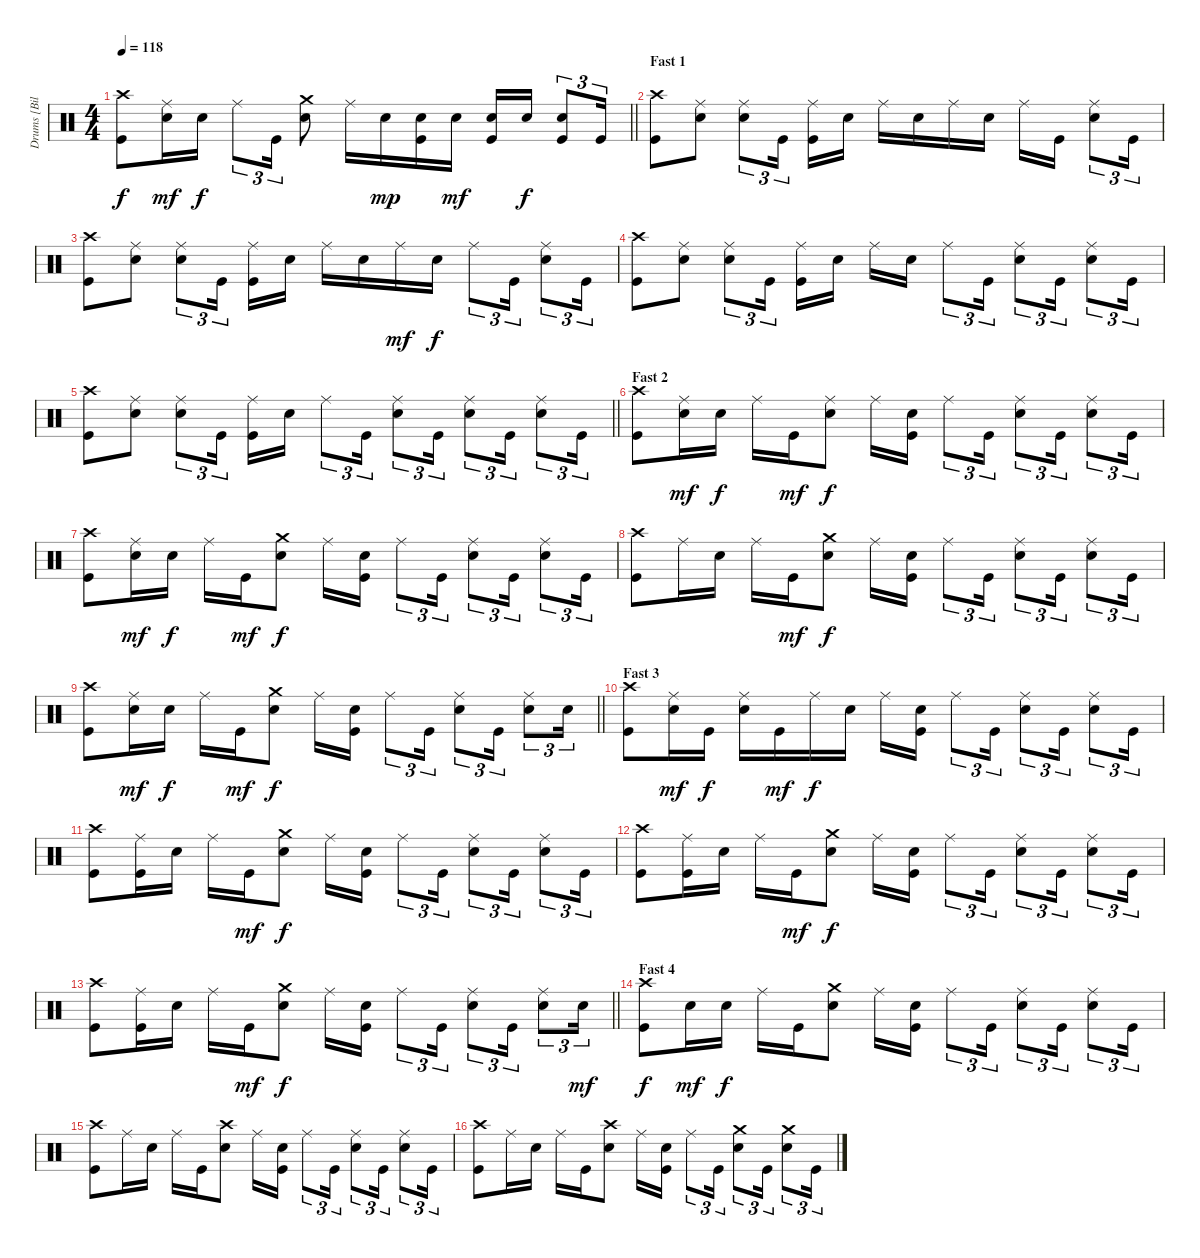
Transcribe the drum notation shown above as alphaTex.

\track ("Drums [Bill Ward]" "Drums [Bil") {instrument percussion}
\staff {score}
\articulation defaults
\ts (4 4)
\tempo 118
\clef neutral
\barLineRight lightlight
\ks c
("Crash high (hit)" "Kick (hit)").8{dy f} ("Ride (middle)" "Electric Snare (hit)").16{dy mf} "Electric Snare (hit)".16{dy f} "Ride (middle)".8{tu (3 2)} "Kick (hit)".16{tu (3 2)} ("Crash medium (hit)" "Electric Snare (hit)").8 "Ride (middle)".16 "Electric Snare (hit)".16{dy mp} ("Electric Snare (hit)" "Kick (hit)").16 "Electric Snare (hit)".16{dy mf} ("Electric Snare (hit)" "Kick (hit)").16 "Electric Snare (hit)".16{dy f} ("Electric Snare (hit)" "Kick (hit)").8{tu (3 2)} "Kick (hit)".16{tu (3 2)} |
\section ("" "Fast 1")
("Crash high (hit)" "Kick (hit)").8 ("Ride (middle)" "Electric Snare (hit)").8 ("Ride (middle)" "Electric Snare (hit)").8{tu (3 2)} "Kick (hit)".16{tu (3 2) beam splitsecondary} ("Ride (middle)" "Kick (hit)").16 "Electric Snare (hit)".16 "Ride (middle)".16 "Electric Snare (hit)".16 "Ride (middle)".16 "Electric Snare (hit)".16 "Ride (middle)".16 "Kick (hit)".16 ("Ride (middle)" "Electric Snare (hit)").8{tu (3 2)} "Kick (hit)".16{tu (3 2)} |
("Crash high (hit)" "Kick (hit)").8 ("Ride (middle)" "Electric Snare (hit)").8 ("Ride (middle)" "Electric Snare (hit)").8{tu (3 2)} "Kick (hit)".16{tu (3 2) beam splitsecondary} ("Ride (middle)" "Kick (hit)").16 "Electric Snare (hit)".16 "Ride (middle)".16 "Electric Snare (hit)".16 "Ride (middle)".16{dy mf} "Electric Snare (hit)".16{dy f} "Ride (middle)".8{tu (3 2)} "Kick (hit)".16{tu (3 2)} ("Ride (middle)" "Electric Snare (hit)").8{tu (3 2)} "Kick (hit)".16{tu (3 2)} |
("Crash high (hit)" "Kick (hit)").8 ("Ride (middle)" "Electric Snare (hit)").8 ("Ride (middle)" "Electric Snare (hit)").8{tu (3 2)} "Kick (hit)".16{tu (3 2) beam splitsecondary} ("Ride (middle)" "Kick (hit)").16 "Electric Snare (hit)".16 "Ride (middle)".16 "Electric Snare (hit)".16 "Ride (middle)".8{tu (3 2)} "Kick (hit)".16{tu (3 2)} ("Ride (middle)" "Electric Snare (hit)").8{tu (3 2)} "Kick (hit)".16{tu (3 2)} ("Ride (middle)" "Electric Snare (hit)").8{tu (3 2)} "Kick (hit)".16{tu (3 2)} |
\barLineRight lightlight
("Crash high (hit)" "Kick (hit)").8 ("Ride (middle)" "Electric Snare (hit)").8 ("Ride (middle)" "Electric Snare (hit)").8{tu (3 2)} "Kick (hit)".16{tu (3 2) beam splitsecondary} ("Ride (middle)" "Kick (hit)").16 "Electric Snare (hit)".16 "Ride (middle)".8{tu (3 2)} "Kick (hit)".16{tu (3 2)} ("Ride (middle)" "Electric Snare (hit)").8{tu (3 2)} "Kick (hit)".16{tu (3 2)} ("Ride (middle)" "Electric Snare (hit)").8{tu (3 2)} "Kick (hit)".16{tu (3 2)} ("Ride (middle)" "Electric Snare (hit)").8{tu (3 2)} "Kick (hit)".16{tu (3 2)} |
\section ("" "Fast 2")
("Crash high (hit)" "Kick (hit)").8 ("Ride (middle)" "Electric Snare (hit)").16{dy mf} "Electric Snare (hit)".16{dy f} "Ride (middle)".16 "Kick (hit)".16{dy mf} ("Ride (middle)" "Electric Snare (hit)").8{dy f} "Ride (middle)".16 ("Electric Snare (hit)" "Kick (hit)").16 "Ride (middle)".8{tu (3 2)} "Kick (hit)".16{tu (3 2)} ("Ride (middle)" "Electric Snare (hit)").8{tu (3 2)} "Kick (hit)".16{tu (3 2)} ("Ride (middle)" "Electric Snare (hit)").8{tu (3 2)} "Kick (hit)".16{tu (3 2)} |
("Crash high (hit)" "Kick (hit)").8 ("Ride (middle)" "Electric Snare (hit)").16{dy mf} "Electric Snare (hit)".16{dy f} "Ride (middle)".16 "Kick (hit)".16{dy mf} ("Crash medium (hit)" "Electric Snare (hit)").8{dy f} "Ride (middle)".16 ("Electric Snare (hit)" "Kick (hit)").16 "Ride (middle)".8{tu (3 2)} "Kick (hit)".16{tu (3 2)} ("Ride (middle)" "Electric Snare (hit)").8{tu (3 2)} "Kick (hit)".16{tu (3 2)} ("Ride (middle)" "Electric Snare (hit)").8{tu (3 2)} "Kick (hit)".16{tu (3 2)} |
("Crash high (hit)" "Kick (hit)").8 "Ride (middle)".16 "Electric Snare (hit)".16 "Ride (middle)".16 "Kick (hit)".16{dy mf} ("Crash medium (hit)" "Electric Snare (hit)").8{dy f} "Ride (middle)".16 ("Electric Snare (hit)" "Kick (hit)").16 "Ride (middle)".8{tu (3 2)} "Kick (hit)".16{tu (3 2)} ("Ride (middle)" "Electric Snare (hit)").8{tu (3 2)} "Kick (hit)".16{tu (3 2)} ("Ride (middle)" "Electric Snare (hit)").8{tu (3 2)} "Kick (hit)".16{tu (3 2)} |
\barLineRight lightlight
("Crash high (hit)" "Kick (hit)").8 ("Ride (middle)" "Electric Snare (hit)").16{dy mf} "Electric Snare (hit)".16{dy f} "Ride (middle)".16 "Kick (hit)".16{dy mf} ("Crash medium (hit)" "Electric Snare (hit)").8{dy f} "Ride (middle)".16 ("Electric Snare (hit)" "Kick (hit)").16 "Ride (middle)".8{tu (3 2)} "Kick (hit)".16{tu (3 2)} ("Ride (middle)" "Electric Snare (hit)").8{tu (3 2)} "Kick (hit)".16{tu (3 2)} ("Ride (middle)" "Electric Snare (hit)").8{tu (3 2)} "Electric Snare (hit)".16{tu (3 2)} |
\section ("" "Fast 3")
("Crash high (hit)" "Kick (hit)").8 ("Ride (middle)" "Electric Snare (hit)").16{dy mf} "Kick (hit)".16{dy f} ("Ride (middle)" "Electric Snare (hit)").16 "Kick (hit)".16{dy mf} "Ride (middle)".16{dy f} "Electric Snare (hit)".16 "Ride (middle)".16 ("Electric Snare (hit)" "Kick (hit)").16 "Ride (middle)".8{tu (3 2)} "Kick (hit)".16{tu (3 2)} ("Ride (middle)" "Electric Snare (hit)").8{tu (3 2)} "Kick (hit)".16{tu (3 2)} ("Ride (middle)" "Electric Snare (hit)").8{tu (3 2)} "Kick (hit)".16{tu (3 2)} |
("Crash high (hit)" "Kick (hit)").8 ("Ride (middle)" "Kick (hit)").16 "Electric Snare (hit)".16 "Ride (middle)".16 "Kick (hit)".16{dy mf} ("Crash medium (hit)" "Electric Snare (hit)").8{dy f} "Ride (middle)".16 ("Electric Snare (hit)" "Kick (hit)").16 "Ride (middle)".8{tu (3 2)} "Kick (hit)".16{tu (3 2)} ("Ride (middle)" "Electric Snare (hit)").8{tu (3 2)} "Kick (hit)".16{tu (3 2)} ("Ride (middle)" "Electric Snare (hit)").8{tu (3 2)} "Kick (hit)".16{tu (3 2)} |
("Crash high (hit)" "Kick (hit)").8 ("Ride (middle)" "Kick (hit)").16 "Electric Snare (hit)".16 "Ride (middle)".16 "Kick (hit)".16{dy mf} ("Crash medium (hit)" "Electric Snare (hit)").8{dy f} "Ride (middle)".16 ("Electric Snare (hit)" "Kick (hit)").16 "Ride (middle)".8{tu (3 2)} "Kick (hit)".16{tu (3 2)} ("Ride (middle)" "Electric Snare (hit)").8{tu (3 2)} "Kick (hit)".16{tu (3 2)} ("Ride (middle)" "Electric Snare (hit)").8{tu (3 2)} "Kick (hit)".16{tu (3 2)} |
\barLineRight lightlight
("Crash high (hit)" "Kick (hit)").8 ("Ride (middle)" "Kick (hit)").16 "Electric Snare (hit)".16 "Ride (middle)".16 "Kick (hit)".16{dy mf} ("Crash medium (hit)" "Electric Snare (hit)").8{dy f} "Ride (middle)".16 ("Electric Snare (hit)" "Kick (hit)").16 "Ride (middle)".8{tu (3 2)} "Kick (hit)".16{tu (3 2)} ("Ride (middle)" "Electric Snare (hit)").8{tu (3 2)} "Kick (hit)".16{tu (3 2)} ("Ride (middle)" "Electric Snare (hit)").8{tu (3 2)} "Electric Snare (hit)".16{tu (3 2) dy mf} |
\section ("" "Fast 4")
("Crash high (hit)" "Kick (hit)").8{dy f} "Electric Snare (hit)".16{dy mf} "Electric Snare (hit)".16{dy f} "Ride (middle)".16 "Kick (hit)".16 ("Crash medium (hit)" "Electric Snare (hit)").8 "Ride (middle)".16 ("Electric Snare (hit)" "Kick (hit)").16 "Ride (middle)".8{tu (3 2)} "Kick (hit)".16{tu (3 2)} ("Ride (middle)" "Electric Snare (hit)").8{tu (3 2)} "Kick (hit)".16{tu (3 2)} ("Ride (middle)" "Electric Snare (hit)").8{tu (3 2)} "Kick (hit)".16{tu (3 2)} |
("Crash high (hit)" "Kick (hit)").8 "Ride (middle)".16 "Electric Snare (hit)".16 "Ride (middle)".16 "Kick (hit)".16 ("Crash high (hit)" "Electric Snare (hit)").8 "Ride (middle)".16 ("Electric Snare (hit)" "Kick (hit)").16 "Ride (middle)".8{tu (3 2)} "Kick (hit)".16{tu (3 2)} ("Ride (middle)" "Electric Snare (hit)").8{tu (3 2)} "Kick (hit)".16{tu (3 2)} ("Ride (middle)" "Electric Snare (hit)").8{tu (3 2)} "Kick (hit)".16{tu (3 2)} |
("Crash high (hit)" "Kick (hit)").8 "Ride (middle)".16 "Electric Snare (hit)".16 "Ride (middle)".16 "Kick (hit)".16 ("Crash high (hit)" "Electric Snare (hit)").8 "Ride (middle)".16 ("Electric Snare (hit)" "Kick (hit)").16 "Ride (middle)".8{tu (3 2)} "Kick (hit)".16{tu (3 2)} ("Crash medium (hit)" "Electric Snare (hit)").8{tu (3 2)} "Kick (hit)".16{tu (3 2)} ("Crash medium (hit)" "Electric Snare (hit)").8{tu (3 2)} "Kick (hit)".16{tu (3 2)}
